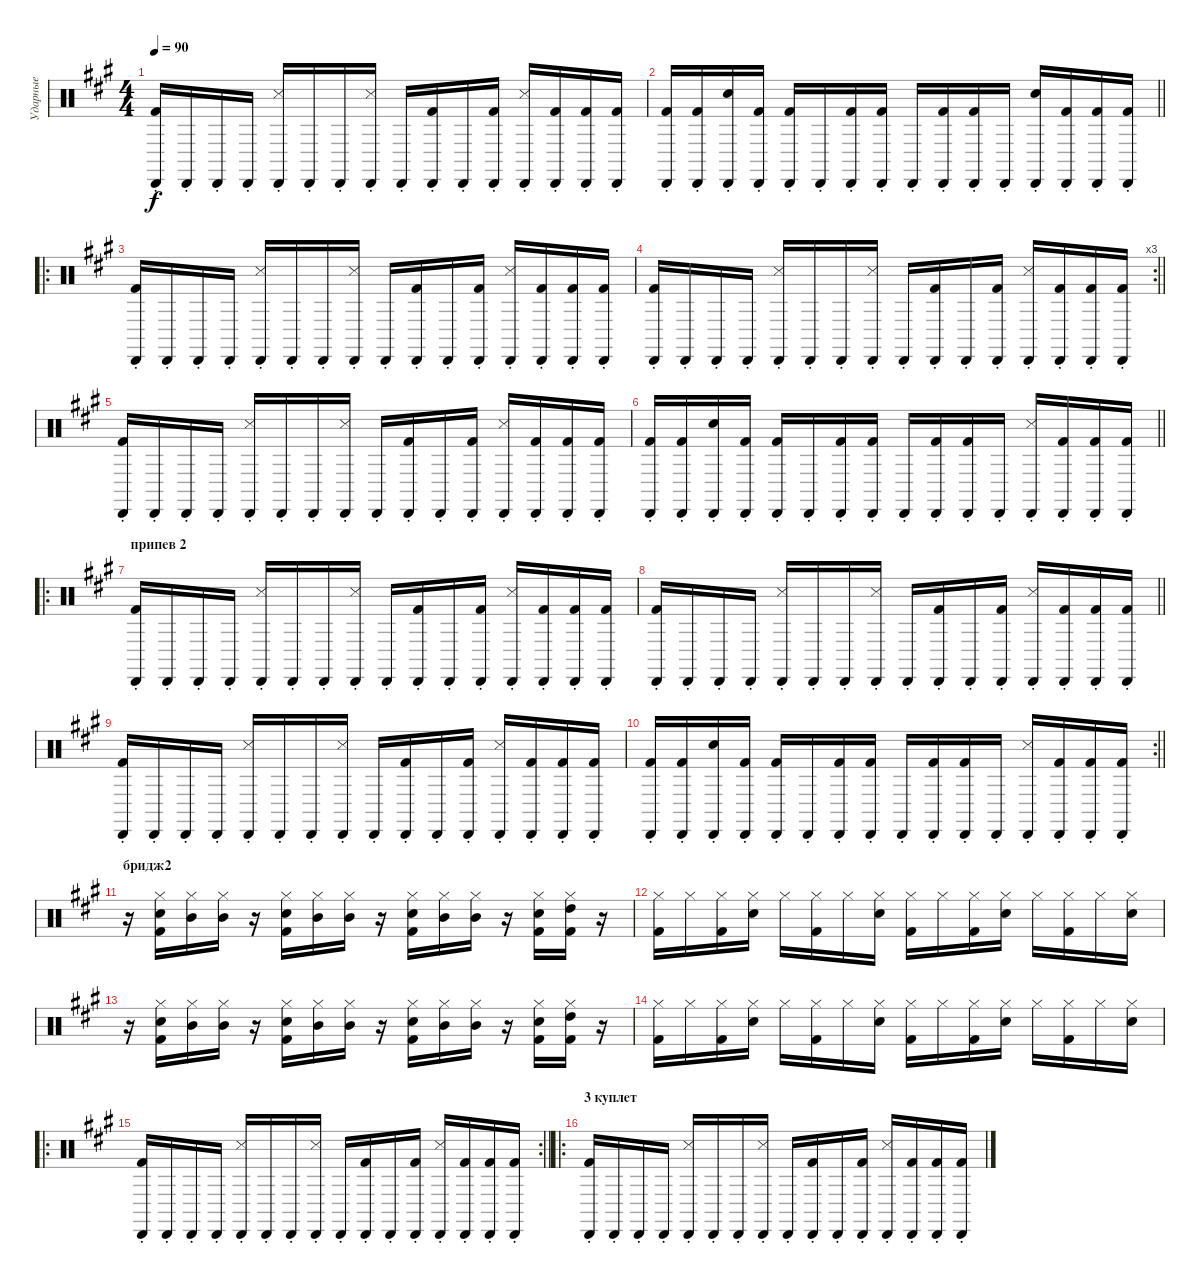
\track ("Ударные" "Ударные") {instrument percussion}
\staff {score}
\articulation defaults
\ts (4 4)
\tempo 90
\clef neutral
\ks f#minor
("Cabasa (hit)"{st} "Kick (hit) 2").16{dy f} "Cabasa (hit)"{st}.16 "Cabasa (hit)"{st}.16 "Cabasa (hit)"{st}.16 ("Cabasa (hit)"{st} "Snare (side stick) 3").16 "Cabasa (hit)"{st}.16 "Cabasa (hit)"{st}.16 ("Cabasa (hit)"{st} "Snare (side stick) 3").16 "Cabasa (hit)"{st}.16 ("Cabasa (hit)"{st} "Kick (hit) 2").16 "Cabasa (hit)"{st}.16 ("Cabasa (hit)"{st} "Kick (hit) 2").16 ("Cabasa (hit)"{st} "Snare (side stick) 3").16 ("Cabasa (hit)"{st} "Kick (hit) 2").16 ("Cabasa (hit)"{st} "Kick (hit) 2").16 ("Cabasa (hit)"{st} "Kick (hit) 2").16 |
\barLineRight lightlight
("Cabasa (hit)"{st} "Kick (hit) 2").16 ("Cabasa (hit)"{st} "Kick (hit) 2").16 ("Cabasa (hit)"{st} "Snare (hit) 2").16 ("Cabasa (hit)"{st} "Kick (hit) 2").16 ("Cabasa (hit)"{st} "Kick (hit) 2").16 "Cabasa (hit)"{st}.16 ("Cabasa (hit)"{st} "Kick (hit) 2").16 ("Cabasa (hit)"{st} "Kick (hit) 2").16 "Cabasa (hit)"{st}.16 ("Cabasa (hit)"{st} "Kick (hit) 2").16 ("Cabasa (hit)"{st} "Kick (hit) 2").16 "Cabasa (hit)"{st}.16 ("Cabasa (hit)"{st} "Snare (hit) 2").16 ("Cabasa (hit)"{st} "Kick (hit) 2").16 ("Cabasa (hit)"{st} "Kick (hit) 2").16 ("Cabasa (hit)"{st} "Kick (hit) 2").16 |
\ro
("Cabasa (hit)"{st} "Kick (hit) 2").16 "Cabasa (hit)"{st}.16 "Cabasa (hit)"{st}.16 "Cabasa (hit)"{st}.16 ("Cabasa (hit)"{st} "Snare (side stick) 3").16 "Cabasa (hit)"{st}.16 "Cabasa (hit)"{st}.16 ("Cabasa (hit)"{st} "Snare (side stick) 3").16 "Cabasa (hit)"{st}.16 ("Cabasa (hit)"{st} "Kick (hit) 2").16 "Cabasa (hit)"{st}.16 ("Cabasa (hit)"{st} "Kick (hit) 2").16 ("Cabasa (hit)"{st} "Snare (side stick) 3").16 ("Cabasa (hit)"{st} "Kick (hit) 2").16 ("Cabasa (hit)"{st} "Kick (hit) 2").16 ("Cabasa (hit)"{st} "Kick (hit) 2").16 |
\rc 3
\barLineRight lightlight
("Cabasa (hit)"{st} "Kick (hit) 2").16 "Cabasa (hit)"{st}.16 "Cabasa (hit)"{st}.16 "Cabasa (hit)"{st}.16 ("Cabasa (hit)"{st} "Snare (side stick) 3").16 "Cabasa (hit)"{st}.16 "Cabasa (hit)"{st}.16 ("Cabasa (hit)"{st} "Snare (side stick) 3").16 "Cabasa (hit)"{st}.16 ("Cabasa (hit)"{st} "Kick (hit) 2").16 "Cabasa (hit)"{st}.16 ("Cabasa (hit)"{st} "Kick (hit) 2").16 ("Cabasa (hit)"{st} "Snare (side stick) 3").16 ("Cabasa (hit)"{st} "Kick (hit) 2").16 ("Cabasa (hit)"{st} "Kick (hit) 2").16 ("Cabasa (hit)"{st} "Kick (hit) 2").16 |
("Cabasa (hit)"{st} "Kick (hit) 2").16 "Cabasa (hit)"{st}.16 "Cabasa (hit)"{st}.16 "Cabasa (hit)"{st}.16 ("Cabasa (hit)"{st} "Snare (side stick) 3").16 "Cabasa (hit)"{st}.16 "Cabasa (hit)"{st}.16 ("Cabasa (hit)"{st} "Snare (side stick) 3").16 "Cabasa (hit)"{st}.16 ("Cabasa (hit)"{st} "Kick (hit) 2").16 "Cabasa (hit)"{st}.16 ("Cabasa (hit)"{st} "Kick (hit) 2").16 ("Cabasa (hit)"{st} "Snare (side stick) 3").16 ("Cabasa (hit)"{st} "Kick (hit) 2").16 ("Cabasa (hit)"{st} "Kick (hit) 2").16 ("Cabasa (hit)"{st} "Kick (hit) 2").16 |
\barLineRight lightlight
("Cabasa (hit)"{st} "Kick (hit) 2").16 ("Cabasa (hit)"{st} "Kick (hit) 2").16 ("Cabasa (hit)"{st} "Snare (hit) 2").16 ("Cabasa (hit)"{st} "Kick (hit) 2").16 ("Cabasa (hit)"{st} "Kick (hit) 2").16 "Cabasa (hit)"{st}.16 ("Cabasa (hit)"{st} "Kick (hit) 2").16 ("Cabasa (hit)"{st} "Kick (hit) 2").16 "Cabasa (hit)"{st}.16 ("Cabasa (hit)"{st} "Kick (hit) 2").16 ("Cabasa (hit)"{st} "Kick (hit) 2").16 "Cabasa (hit)"{st}.16 ("Cabasa (hit)"{st} "Snare (side stick) 3").16 ("Cabasa (hit)"{st} "Kick (hit) 2").16 ("Cabasa (hit)"{st} "Kick (hit) 2").16 ("Cabasa (hit)"{st} "Kick (hit) 2").16 |
\ro
\section ("" "припев 2")
("Cabasa (hit)"{st} "Kick (hit) 2").16 "Cabasa (hit)"{st}.16 "Cabasa (hit)"{st}.16 "Cabasa (hit)"{st}.16 ("Cabasa (hit)"{st} "Snare (side stick) 3").16 "Cabasa (hit)"{st}.16 "Cabasa (hit)"{st}.16 ("Cabasa (hit)"{st} "Snare (side stick) 3").16 "Cabasa (hit)"{st}.16 ("Cabasa (hit)"{st} "Kick (hit) 2").16 "Cabasa (hit)"{st}.16 ("Cabasa (hit)"{st} "Kick (hit) 2").16 ("Cabasa (hit)"{st} "Snare (side stick) 3").16 ("Cabasa (hit)"{st} "Kick (hit) 2").16 ("Cabasa (hit)"{st} "Kick (hit) 2").16 ("Cabasa (hit)"{st} "Kick (hit) 2").16 |
\barLineRight lightlight
("Cabasa (hit)"{st} "Kick (hit) 2").16 "Cabasa (hit)"{st}.16 "Cabasa (hit)"{st}.16 "Cabasa (hit)"{st}.16 ("Cabasa (hit)"{st} "Snare (side stick) 3").16 "Cabasa (hit)"{st}.16 "Cabasa (hit)"{st}.16 ("Cabasa (hit)"{st} "Snare (side stick) 3").16 "Cabasa (hit)"{st}.16 ("Cabasa (hit)"{st} "Kick (hit) 2").16 "Cabasa (hit)"{st}.16 ("Cabasa (hit)"{st} "Kick (hit) 2").16 ("Cabasa (hit)"{st} "Snare (side stick) 3").16 ("Cabasa (hit)"{st} "Kick (hit) 2").16 ("Cabasa (hit)"{st} "Kick (hit) 2").16 ("Cabasa (hit)"{st} "Kick (hit) 2").16 |
("Cabasa (hit)"{st} "Kick (hit) 2").16 "Cabasa (hit)"{st}.16 "Cabasa (hit)"{st}.16 "Cabasa (hit)"{st}.16 ("Cabasa (hit)"{st} "Snare (side stick) 3").16 "Cabasa (hit)"{st}.16 "Cabasa (hit)"{st}.16 ("Cabasa (hit)"{st} "Snare (side stick) 3").16 "Cabasa (hit)"{st}.16 ("Cabasa (hit)"{st} "Kick (hit) 2").16 "Cabasa (hit)"{st}.16 ("Cabasa (hit)"{st} "Kick (hit) 2").16 ("Cabasa (hit)"{st} "Snare (side stick) 3").16 ("Cabasa (hit)"{st} "Kick (hit) 2").16 ("Cabasa (hit)"{st} "Kick (hit) 2").16 ("Cabasa (hit)"{st} "Kick (hit) 2").16 |
\rc 2
\barLineRight lightlight
("Cabasa (hit)"{st} "Kick (hit) 2").16 ("Cabasa (hit)"{st} "Kick (hit) 2").16 ("Cabasa (hit)"{st} "Snare (hit) 2").16 ("Cabasa (hit)"{st} "Kick (hit) 2").16 ("Cabasa (hit)"{st} "Kick (hit) 2").16 "Cabasa (hit)"{st}.16 ("Cabasa (hit)"{st} "Kick (hit) 2").16 ("Cabasa (hit)"{st} "Kick (hit) 2").16 "Cabasa (hit)"{st}.16 ("Cabasa (hit)"{st} "Kick (hit) 2").16 ("Cabasa (hit)"{st} "Kick (hit) 2").16 "Cabasa (hit)"{st}.16 ("Cabasa (hit)"{st} "Snare (side stick) 3").16 ("Cabasa (hit)"{st} "Kick (hit) 2").16 ("Cabasa (hit)"{st} "Kick (hit) 2").16 ("Cabasa (hit)"{st} "Kick (hit) 2").16 |
\section ("" "бридж2")
r.16 ("Hi-Hat (closed)" "Snare (hit) 2" "Kick (hit) 2").16 ("Hi-Hat (closed)" "Mid Tom (hit)").16 ("Hi-Hat (closed)" "Mid Tom (hit)").16 r.16 ("Hi-Hat (closed)" "Snare (hit) 2" "Kick (hit) 2").16 ("Hi-Hat (closed)" "Mid Tom (hit)").16 ("Hi-Hat (closed)" "Mid Tom (hit)").16 r.16 ("Hi-Hat (closed)" "Snare (hit) 2" "Kick (hit) 2").16 ("Hi-Hat (closed)" "Mid Tom (hit)").16 ("Hi-Hat (closed)" "Mid Tom (hit)").16 r.16 ("Hi-Hat (closed)" "Snare (hit) 2" "Kick (hit) 2").16 ("Hi-Hat (closed)" "High Tom (hit)" "Kick (hit) 2").16 r.16 |
("Hi-Hat (closed)" "Kick (hit) 2").16 "Hi-Hat (closed)".16 ("Hi-Hat (closed)" "Kick (hit) 2").16 ("Hi-Hat (closed)" "Snare (hit) 2").16 "Hi-Hat (closed)".16 ("Hi-Hat (closed)" "Kick (hit) 2").16 "Hi-Hat (closed)".16 ("Hi-Hat (closed)" "Snare (hit) 2").16 ("Hi-Hat (closed)" "Kick (hit) 2").16 "Hi-Hat (closed)".16 ("Hi-Hat (closed)" "Kick (hit) 2").16 ("Hi-Hat (closed)" "Snare (hit) 2").16 "Hi-Hat (closed)".16 ("Hi-Hat (closed)" "Kick (hit) 2").16 "Hi-Hat (closed)".16 ("Hi-Hat (closed)" "Snare (hit) 2").16 |
r.16 ("Hi-Hat (closed)" "Snare (hit) 2" "Kick (hit) 2").16 ("Hi-Hat (closed)" "Mid Tom (hit)").16 ("Hi-Hat (closed)" "Mid Tom (hit)").16 r.16 ("Hi-Hat (closed)" "Snare (hit) 2" "Kick (hit) 2").16 ("Hi-Hat (closed)" "Mid Tom (hit)").16 ("Hi-Hat (closed)" "Mid Tom (hit)").16 r.16 ("Hi-Hat (closed)" "Snare (hit) 2" "Kick (hit) 2").16 ("Hi-Hat (closed)" "Mid Tom (hit)").16 ("Hi-Hat (closed)" "Mid Tom (hit)").16 r.16 ("Hi-Hat (closed)" "Snare (hit) 2" "Kick (hit) 2").16 ("Hi-Hat (closed)" "High Tom (hit)" "Kick (hit) 2").16 r.16 |
("Hi-Hat (closed)" "Kick (hit) 2").16 "Hi-Hat (closed)".16 ("Hi-Hat (closed)" "Kick (hit) 2").16 ("Hi-Hat (closed)" "Snare (hit) 2").16 "Hi-Hat (closed)".16 ("Hi-Hat (closed)" "Kick (hit) 2").16 "Hi-Hat (closed)".16 ("Hi-Hat (closed)" "Snare (hit) 2").16 ("Hi-Hat (closed)" "Kick (hit) 2").16 "Hi-Hat (closed)".16 ("Hi-Hat (closed)" "Kick (hit) 2").16 ("Hi-Hat (closed)" "Snare (hit) 2").16 "Hi-Hat (closed)".16 ("Hi-Hat (closed)" "Kick (hit) 2").16 "Hi-Hat (closed)".16 ("Hi-Hat (closed)" "Snare (hit) 2").16 |
\ro
\rc 2
\barLineRight lightlight
("Cabasa (hit)"{st} "Kick (hit) 2").16 "Cabasa (hit)"{st}.16 "Cabasa (hit)"{st}.16 "Cabasa (hit)"{st}.16 ("Cabasa (hit)"{st} "Snare (side stick) 3").16 "Cabasa (hit)"{st}.16 "Cabasa (hit)"{st}.16 ("Cabasa (hit)"{st} "Snare (side stick) 3").16 "Cabasa (hit)"{st}.16 ("Cabasa (hit)"{st} "Kick (hit) 2").16 "Cabasa (hit)"{st}.16 ("Cabasa (hit)"{st} "Kick (hit) 2").16 ("Cabasa (hit)"{st} "Snare (side stick) 3").16 ("Cabasa (hit)"{st} "Kick (hit) 2").16 ("Cabasa (hit)"{st} "Kick (hit) 2").16 ("Cabasa (hit)"{st} "Kick (hit) 2").16 |
\ro
\section ("" "3 куплет")
("Cabasa (hit)"{st} "Kick (hit) 2").16 "Cabasa (hit)"{st}.16 "Cabasa (hit)"{st}.16 "Cabasa (hit)"{st}.16 ("Cabasa (hit)"{st} "Snare (side stick) 3").16 "Cabasa (hit)"{st}.16 "Cabasa (hit)"{st}.16 ("Cabasa (hit)"{st} "Snare (side stick) 3").16 "Cabasa (hit)"{st}.16 ("Cabasa (hit)"{st} "Kick (hit) 2").16 "Cabasa (hit)"{st}.16 ("Cabasa (hit)"{st} "Kick (hit) 2").16 ("Cabasa (hit)"{st} "Snare (side stick) 3").16 ("Cabasa (hit)"{st} "Kick (hit) 2").16 ("Cabasa (hit)"{st} "Kick (hit) 2").16 ("Cabasa (hit)"{st} "Kick (hit) 2").16
